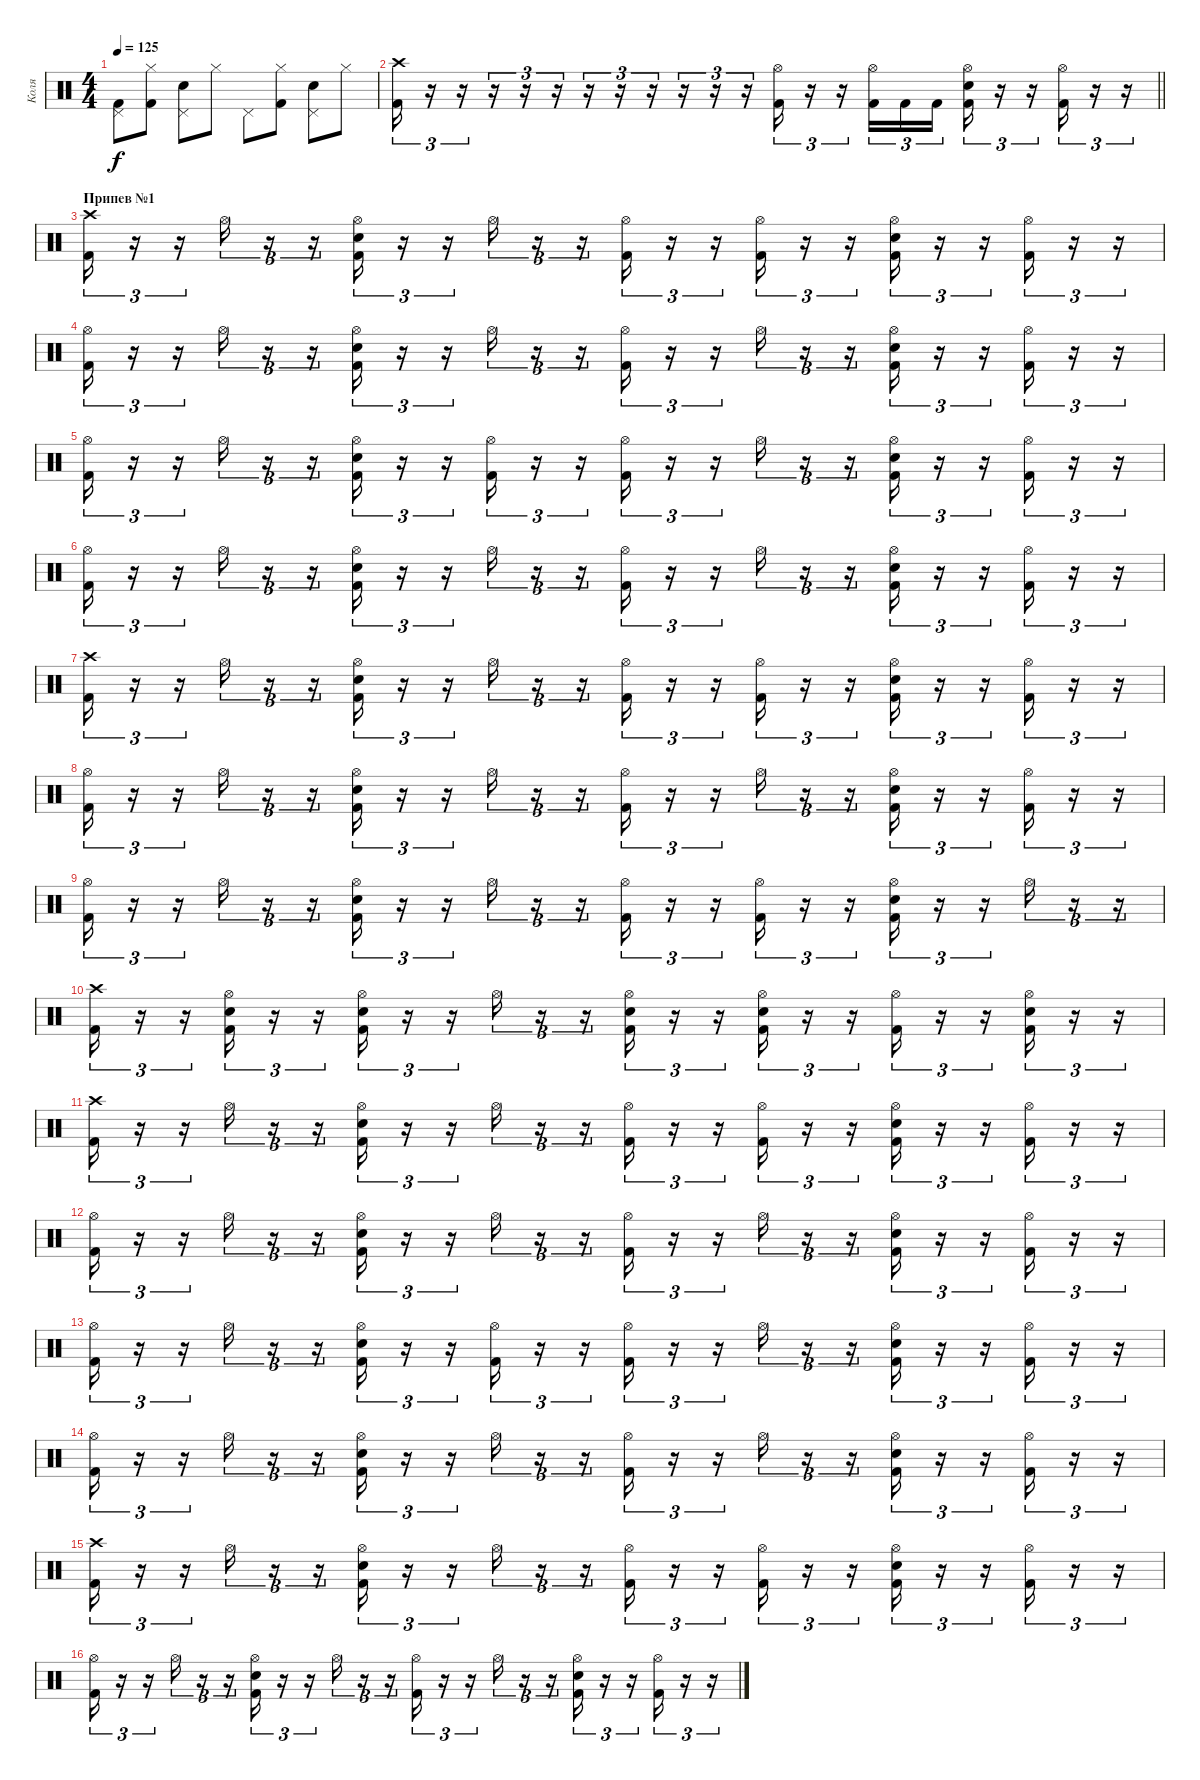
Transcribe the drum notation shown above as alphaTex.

\track ("Коля" "Коля") {instrument percussion}
\staff {score}
\articulation defaults
\ts (4 4)
\tempo 125
\clef neutral
\ks c
("Kick (hit) 2" "Pedal Hi-Hat (hit)").8{dy f} ("Kick (hit) 2" "Hi-Hat (closed)").8 ("Snare (hit) 2" "Pedal Hi-Hat (hit)").8 "Hi-Hat (closed)".8 "Pedal Hi-Hat (hit)".8 ("Kick (hit) 2" "Hi-Hat (closed)").8 ("Snare (hit) 2" "Pedal Hi-Hat (hit)").8 "Hi-Hat (closed)".8 |
\barLineRight lightlight
("Kick (hit) 2" "Crash high (hit)").16{tu (3 2)} r.16{tu (3 2)} r.16{tu (3 2)} r.16{tu (3 2)} r.16{tu (3 2)} r.16{tu (3 2)} r.16{tu (3 2)} r.16{tu (3 2)} r.16{tu (3 2)} r.16{tu (3 2)} r.16{tu (3 2)} r.16{tu (3 2)} ("Kick (hit) 2" "Hi-Hat (open)").16{tu (3 2)} r.16{tu (3 2)} r.16{tu (3 2)} ("Kick (hit) 2" "Hi-Hat (open)").16{tu (3 2)} "Kick (hit) 2".16{tu (3 2)} "Kick (hit) 2".16{tu (3 2)} ("Kick (hit) 2" "Snare (hit) 2" "Hi-Hat (open)").16{tu (3 2)} r.16{tu (3 2)} r.16{tu (3 2)} ("Kick (hit) 2" "Hi-Hat (open)").16{tu (3 2)} r.16{tu (3 2)} r.16{tu (3 2)} |
\section ("" "Припев №1")
("Kick (hit) 2" "Crash high (hit)").16{tu (3 2)} r.16{tu (3 2)} r.16{tu (3 2)} "Hi-Hat (open)".16{tu (3 2)} r.16{tu (3 2)} r.16{tu (3 2)} ("Kick (hit) 2" "Snare (hit) 2" "Hi-Hat (open)").16{tu (3 2)} r.16{tu (3 2)} r.16{tu (3 2)} "Hi-Hat (open)".16{tu (3 2)} r.16{tu (3 2)} r.16{tu (3 2)} ("Kick (hit) 2" "Hi-Hat (open)").16{tu (3 2)} r.16{tu (3 2)} r.16{tu (3 2)} ("Kick (hit) 2" "Hi-Hat (open)").16{tu (3 2)} r.16{tu (3 2)} r.16{tu (3 2)} ("Kick (hit) 2" "Snare (hit) 2" "Hi-Hat (open)").16{tu (3 2)} r.16{tu (3 2)} r.16{tu (3 2)} ("Kick (hit) 2" "Hi-Hat (open)").16{tu (3 2)} r.16{tu (3 2)} r.16{tu (3 2)} |
("Kick (hit) 2" "Hi-Hat (open)").16{tu (3 2)} r.16{tu (3 2)} r.16{tu (3 2)} "Hi-Hat (open)".16{tu (3 2)} r.16{tu (3 2)} r.16{tu (3 2)} ("Kick (hit) 2" "Snare (hit) 2" "Hi-Hat (open)").16{tu (3 2)} r.16{tu (3 2)} r.16{tu (3 2)} "Hi-Hat (open)".16{tu (3 2)} r.16{tu (3 2)} r.16{tu (3 2)} ("Kick (hit) 2" "Hi-Hat (open)").16{tu (3 2)} r.16{tu (3 2)} r.16{tu (3 2)} "Hi-Hat (open)".16{tu (3 2)} r.16{tu (3 2)} r.16{tu (3 2)} ("Kick (hit) 2" "Snare (hit) 2" "Hi-Hat (open)").16{tu (3 2)} r.16{tu (3 2)} r.16{tu (3 2)} ("Kick (hit) 2" "Hi-Hat (open)").16{tu (3 2)} r.16{tu (3 2)} r.16{tu (3 2)} |
("Kick (hit) 2" "Hi-Hat (open)").16{tu (3 2)} r.16{tu (3 2)} r.16{tu (3 2)} "Hi-Hat (open)".16{tu (3 2)} r.16{tu (3 2)} r.16{tu (3 2)} ("Kick (hit) 2" "Snare (hit) 2" "Hi-Hat (open)").16{tu (3 2)} r.16{tu (3 2)} r.16{tu (3 2)} ("Kick (hit) 2" "Hi-Hat (open)").16{tu (3 2)} r.16{tu (3 2)} r.16{tu (3 2)} ("Kick (hit) 2" "Hi-Hat (open)").16{tu (3 2)} r.16{tu (3 2)} r.16{tu (3 2)} "Hi-Hat (open)".16{tu (3 2)} r.16{tu (3 2)} r.16{tu (3 2)} ("Kick (hit) 2" "Snare (hit) 2" "Hi-Hat (open)").16{tu (3 2)} r.16{tu (3 2)} r.16{tu (3 2)} ("Kick (hit) 2" "Hi-Hat (open)").16{tu (3 2)} r.16{tu (3 2)} r.16{tu (3 2)} |
("Kick (hit) 2" "Hi-Hat (open)").16{tu (3 2)} r.16{tu (3 2)} r.16{tu (3 2)} "Hi-Hat (open)".16{tu (3 2)} r.16{tu (3 2)} r.16{tu (3 2)} ("Kick (hit) 2" "Snare (hit) 2" "Hi-Hat (open)").16{tu (3 2)} r.16{tu (3 2)} r.16{tu (3 2)} "Hi-Hat (open)".16{tu (3 2)} r.16{tu (3 2)} r.16{tu (3 2)} ("Kick (hit) 2" "Hi-Hat (open)").16{tu (3 2)} r.16{tu (3 2)} r.16{tu (3 2)} "Hi-Hat (open)".16{tu (3 2)} r.16{tu (3 2)} r.16{tu (3 2)} ("Kick (hit) 2" "Snare (hit) 2" "Hi-Hat (open)").16{tu (3 2)} r.16{tu (3 2)} r.16{tu (3 2)} ("Kick (hit) 2" "Hi-Hat (open)").16{tu (3 2)} r.16{tu (3 2)} r.16{tu (3 2)} |
("Kick (hit) 2" "Crash high (hit)").16{tu (3 2)} r.16{tu (3 2)} r.16{tu (3 2)} "Hi-Hat (open)".16{tu (3 2)} r.16{tu (3 2)} r.16{tu (3 2)} ("Kick (hit) 2" "Snare (hit) 2" "Hi-Hat (open)").16{tu (3 2)} r.16{tu (3 2)} r.16{tu (3 2)} "Hi-Hat (open)".16{tu (3 2)} r.16{tu (3 2)} r.16{tu (3 2)} ("Kick (hit) 2" "Hi-Hat (open)").16{tu (3 2)} r.16{tu (3 2)} r.16{tu (3 2)} ("Kick (hit) 2" "Hi-Hat (open)").16{tu (3 2)} r.16{tu (3 2)} r.16{tu (3 2)} ("Kick (hit) 2" "Snare (hit) 2" "Hi-Hat (open)").16{tu (3 2)} r.16{tu (3 2)} r.16{tu (3 2)} ("Kick (hit) 2" "Hi-Hat (open)").16{tu (3 2)} r.16{tu (3 2)} r.16{tu (3 2)} |
("Kick (hit) 2" "Hi-Hat (open)").16{tu (3 2)} r.16{tu (3 2)} r.16{tu (3 2)} "Hi-Hat (open)".16{tu (3 2)} r.16{tu (3 2)} r.16{tu (3 2)} ("Kick (hit) 2" "Snare (hit) 2" "Hi-Hat (open)").16{tu (3 2)} r.16{tu (3 2)} r.16{tu (3 2)} "Hi-Hat (open)".16{tu (3 2)} r.16{tu (3 2)} r.16{tu (3 2)} ("Kick (hit) 2" "Hi-Hat (open)").16{tu (3 2)} r.16{tu (3 2)} r.16{tu (3 2)} "Hi-Hat (open)".16{tu (3 2)} r.16{tu (3 2)} r.16{tu (3 2)} ("Kick (hit) 2" "Snare (hit) 2" "Hi-Hat (open)").16{tu (3 2)} r.16{tu (3 2)} r.16{tu (3 2)} ("Kick (hit) 2" "Hi-Hat (open)").16{tu (3 2)} r.16{tu (3 2)} r.16{tu (3 2)} |
("Kick (hit) 2" "Hi-Hat (open)").16{tu (3 2)} r.16{tu (3 2)} r.16{tu (3 2)} "Hi-Hat (open)".16{tu (3 2)} r.16{tu (3 2)} r.16{tu (3 2)} ("Kick (hit) 2" "Snare (hit) 2" "Hi-Hat (open)").16{tu (3 2)} r.16{tu (3 2)} r.16{tu (3 2)} "Hi-Hat (open)".16{tu (3 2)} r.16{tu (3 2)} r.16{tu (3 2)} ("Kick (hit) 2" "Hi-Hat (open)").16{tu (3 2)} r.16{tu (3 2)} r.16{tu (3 2)} ("Kick (hit) 2" "Hi-Hat (open)").16{tu (3 2)} r.16{tu (3 2)} r.16{tu (3 2)} ("Kick (hit) 2" "Snare (hit) 2" "Hi-Hat (open)").16{tu (3 2)} r.16{tu (3 2)} r.16{tu (3 2)} "Hi-Hat (open)".16{tu (3 2)} r.16{tu (3 2)} r.16{tu (3 2)} |
("Kick (hit) 2" "Crash high (hit)").16{tu (3 2)} r.16{tu (3 2)} r.16{tu (3 2)} ("Kick (hit) 2" "Snare (hit) 2" "Hi-Hat (open)").16{tu (3 2)} r.16{tu (3 2)} r.16{tu (3 2)} ("Kick (hit) 2" "Snare (hit) 2" "Hi-Hat (open)").16{tu (3 2)} r.16{tu (3 2)} r.16{tu (3 2)} "Hi-Hat (open)".16{tu (3 2)} r.16{tu (3 2)} r.16{tu (3 2)} ("Kick (hit) 2" "Snare (hit) 2" "Hi-Hat (open)").16{tu (3 2)} r.16{tu (3 2)} r.16{tu (3 2)} ("Kick (hit) 2" "Snare (hit) 2" "Hi-Hat (open)").16{tu (3 2)} r.16{tu (3 2)} r.16{tu (3 2)} ("Kick (hit) 2" "Hi-Hat (open)").16{tu (3 2)} r.16{tu (3 2)} r.16{tu (3 2)} ("Kick (hit) 2" "Snare (hit) 2" "Hi-Hat (open)").16{tu (3 2)} r.16{tu (3 2)} r.16{tu (3 2)} |
("Kick (hit) 2" "Crash high (hit)").16{tu (3 2)} r.16{tu (3 2)} r.16{tu (3 2)} "Hi-Hat (open)".16{tu (3 2)} r.16{tu (3 2)} r.16{tu (3 2)} ("Kick (hit) 2" "Snare (hit) 2" "Hi-Hat (open)").16{tu (3 2)} r.16{tu (3 2)} r.16{tu (3 2)} "Hi-Hat (open)".16{tu (3 2)} r.16{tu (3 2)} r.16{tu (3 2)} ("Kick (hit) 2" "Hi-Hat (open)").16{tu (3 2)} r.16{tu (3 2)} r.16{tu (3 2)} ("Kick (hit) 2" "Hi-Hat (open)").16{tu (3 2)} r.16{tu (3 2)} r.16{tu (3 2)} ("Kick (hit) 2" "Snare (hit) 2" "Hi-Hat (open)").16{tu (3 2)} r.16{tu (3 2)} r.16{tu (3 2)} ("Kick (hit) 2" "Hi-Hat (open)").16{tu (3 2)} r.16{tu (3 2)} r.16{tu (3 2)} |
("Kick (hit) 2" "Hi-Hat (open)").16{tu (3 2)} r.16{tu (3 2)} r.16{tu (3 2)} "Hi-Hat (open)".16{tu (3 2)} r.16{tu (3 2)} r.16{tu (3 2)} ("Kick (hit) 2" "Snare (hit) 2" "Hi-Hat (open)").16{tu (3 2)} r.16{tu (3 2)} r.16{tu (3 2)} "Hi-Hat (open)".16{tu (3 2)} r.16{tu (3 2)} r.16{tu (3 2)} ("Kick (hit) 2" "Hi-Hat (open)").16{tu (3 2)} r.16{tu (3 2)} r.16{tu (3 2)} "Hi-Hat (open)".16{tu (3 2)} r.16{tu (3 2)} r.16{tu (3 2)} ("Kick (hit) 2" "Snare (hit) 2" "Hi-Hat (open)").16{tu (3 2)} r.16{tu (3 2)} r.16{tu (3 2)} ("Kick (hit) 2" "Hi-Hat (open)").16{tu (3 2)} r.16{tu (3 2)} r.16{tu (3 2)} |
("Kick (hit) 2" "Hi-Hat (open)").16{tu (3 2)} r.16{tu (3 2)} r.16{tu (3 2)} "Hi-Hat (open)".16{tu (3 2)} r.16{tu (3 2)} r.16{tu (3 2)} ("Kick (hit) 2" "Snare (hit) 2" "Hi-Hat (open)").16{tu (3 2)} r.16{tu (3 2)} r.16{tu (3 2)} ("Kick (hit) 2" "Hi-Hat (open)").16{tu (3 2)} r.16{tu (3 2)} r.16{tu (3 2)} ("Kick (hit) 2" "Hi-Hat (open)").16{tu (3 2)} r.16{tu (3 2)} r.16{tu (3 2)} "Hi-Hat (open)".16{tu (3 2)} r.16{tu (3 2)} r.16{tu (3 2)} ("Kick (hit) 2" "Snare (hit) 2" "Hi-Hat (open)").16{tu (3 2)} r.16{tu (3 2)} r.16{tu (3 2)} ("Kick (hit) 2" "Hi-Hat (open)").16{tu (3 2)} r.16{tu (3 2)} r.16{tu (3 2)} |
("Kick (hit) 2" "Hi-Hat (open)").16{tu (3 2)} r.16{tu (3 2)} r.16{tu (3 2)} "Hi-Hat (open)".16{tu (3 2)} r.16{tu (3 2)} r.16{tu (3 2)} ("Kick (hit) 2" "Snare (hit) 2" "Hi-Hat (open)").16{tu (3 2)} r.16{tu (3 2)} r.16{tu (3 2)} "Hi-Hat (open)".16{tu (3 2)} r.16{tu (3 2)} r.16{tu (3 2)} ("Kick (hit) 2" "Hi-Hat (open)").16{tu (3 2)} r.16{tu (3 2)} r.16{tu (3 2)} "Hi-Hat (open)".16{tu (3 2)} r.16{tu (3 2)} r.16{tu (3 2)} ("Kick (hit) 2" "Snare (hit) 2" "Hi-Hat (open)").16{tu (3 2)} r.16{tu (3 2)} r.16{tu (3 2)} ("Kick (hit) 2" "Hi-Hat (open)").16{tu (3 2)} r.16{tu (3 2)} r.16{tu (3 2)} |
("Kick (hit) 2" "Crash high (hit)").16{tu (3 2)} r.16{tu (3 2)} r.16{tu (3 2)} "Hi-Hat (open)".16{tu (3 2)} r.16{tu (3 2)} r.16{tu (3 2)} ("Kick (hit) 2" "Snare (hit) 2" "Hi-Hat (open)").16{tu (3 2)} r.16{tu (3 2)} r.16{tu (3 2)} "Hi-Hat (open)".16{tu (3 2)} r.16{tu (3 2)} r.16{tu (3 2)} ("Kick (hit) 2" "Hi-Hat (open)").16{tu (3 2)} r.16{tu (3 2)} r.16{tu (3 2)} ("Kick (hit) 2" "Hi-Hat (open)").16{tu (3 2)} r.16{tu (3 2)} r.16{tu (3 2)} ("Kick (hit) 2" "Snare (hit) 2" "Hi-Hat (open)").16{tu (3 2)} r.16{tu (3 2)} r.16{tu (3 2)} ("Kick (hit) 2" "Hi-Hat (open)").16{tu (3 2)} r.16{tu (3 2)} r.16{tu (3 2)} |
("Kick (hit) 2" "Hi-Hat (open)").16{tu (3 2)} r.16{tu (3 2)} r.16{tu (3 2)} "Hi-Hat (open)".16{tu (3 2)} r.16{tu (3 2)} r.16{tu (3 2)} ("Kick (hit) 2" "Snare (hit) 2" "Hi-Hat (open)").16{tu (3 2)} r.16{tu (3 2)} r.16{tu (3 2)} "Hi-Hat (open)".16{tu (3 2)} r.16{tu (3 2)} r.16{tu (3 2)} ("Kick (hit) 2" "Hi-Hat (open)").16{tu (3 2)} r.16{tu (3 2)} r.16{tu (3 2)} "Hi-Hat (open)".16{tu (3 2)} r.16{tu (3 2)} r.16{tu (3 2)} ("Kick (hit) 2" "Snare (hit) 2" "Hi-Hat (open)").16{tu (3 2)} r.16{tu (3 2)} r.16{tu (3 2)} ("Kick (hit) 2" "Hi-Hat (open)").16{tu (3 2)} r.16{tu (3 2)} r.16{tu (3 2)}
